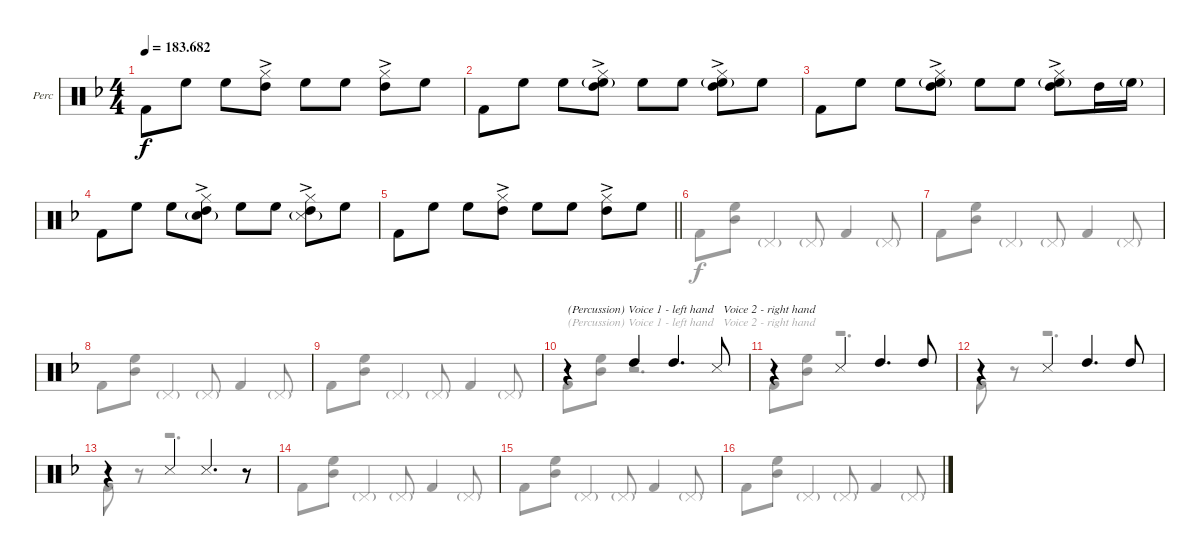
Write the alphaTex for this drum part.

\defaultSystemsLayout 4
\bracketExtendMode groupsimilarinstruments
\firstSystemTrackNameOrientation horizontal
\otherSystemsTrackNameOrientation horizontal
\track ("Body Percussion" "Perc") {instrument percussion}
\staff {score}
\articulation defaults
\voice
\ts (4 4)
\tempo
183.682
\accidentals auto
\clef neutral
\ottava regular
\simile none
\ks dminor "Kick (hit) 2"{acc forcenatural}.8{dy f beam Down} "High Floor Tom (hit)"{acc forcenatural}.8{beam Down} "High Floor Tom (hit)"{acc forcenatural}.8{beam Down}
("Hi-Hat (closed)"{acc forcenatural} "High Tom (hit)"{ac acc forcenatural}).8{beam Down} "High Floor Tom (hit)"{acc forcenatural}.8{beam Down} "High Floor Tom (hit)"{acc forcenatural}.8{beam Down} ("Hi-Hat (closed)"{acc forcenatural} "High Tom (hit)"{ac acc forcenatural}).8{beam Down} "High Floor Tom (hit)"{acc forcenatural}.8{beam Down} |
"Kick (hit) 2"{acc forcenatural}.8{beam Down} "High Floor Tom (hit)"{acc forcenatural}.8{beam Down} "High Floor Tom (hit)"{acc forcenatural}.8{beam Down} ("Hi-Hat (closed)"{acc forcenatural} "High Tom (hit)"{ac acc forcenatural} "High Floor Tom (hit)"{g acc forcenatural}).8{beam Down} "High Floor Tom (hit)"{acc forcenatural}.8{beam Down} "High Floor Tom (hit)"{acc forcenatural}.8{beam Down} ("Hi-Hat (closed)"{acc forcenatural} "High Tom (hit)"{ac acc forcenatural} "High Floor Tom (hit)"{g acc forcenatural}).8{beam Down} "High Floor Tom (hit)"{acc forcenatural}.8{beam Down} |
"Kick (hit) 2"{acc forcenatural}.8{beam Down} "High Floor Tom (hit)"{acc forcenatural}.8{beam Down} "High Floor Tom (hit)"{acc forcenatural}.8{beam Down} ("Hi-Hat (closed)"{acc forcenatural} "High Tom (hit)"{ac acc forcenatural} "High Floor Tom (hit)"{g acc forcenatural}).8{beam Down} "High Floor Tom (hit)"{acc forcenatural}.8{beam Down} "High Floor Tom (hit)"{acc forcenatural}.8{beam Down} ("Hi-Hat (closed)"{acc forcenatural} "High Tom (hit)"{ac acc forcenatural} "High Floor Tom (hit)"{g acc forcenatural}).8{beam Down} "High Tom (hit)"{acc forcenatural}.16{beam Down} "High Floor Tom (hit)"{g acc forcenatural}.16{beam Down} |
"Kick (hit) 2"{acc forcenatural}.8{beam Down} "High Floor Tom (hit)"{acc forcenatural}.8{beam Down} "High Floor Tom (hit)"{acc forcenatural}.8{beam Down} ("Hi-Hat (closed)"{acc forcenatural} "High Tom (hit)"{ac acc forcenatural} "Snare (hit) 2"{g acc forcenatural}).8{beam Down} "High Floor Tom (hit)"{acc forcenatural}.8{beam Down} "High Floor Tom (hit)"{acc forcenatural}.8{beam Down} ("Hi-Hat (closed)"{acc forcenatural} "High Tom (hit)"{ac acc forcenatural} "Snare (side stick) 3"{g acc forcenatural}).8{beam Down} "High Floor Tom (hit)"{acc forcenatural}.8{beam Down} |
\barLineRight lightlight "Kick (hit) 2"{acc forcenatural}.8{beam Down} "High Floor Tom (hit)"{acc forcenatural}.8{beam Down} "High Floor Tom (hit)"{acc forcenatural}.8{beam Down}
("Hi-Hat (closed)"{acc forcenatural} "High Tom (hit)"{ac acc forcenatural}).8{beam Down} "High Floor Tom (hit)"{acc forcenatural}.8{beam Down} "High Floor Tom (hit)"{acc forcenatural}.8{beam Down} ("Hi-Hat (closed)"{acc forcenatural} "High Tom (hit)"{ac acc forcenatural}).8{beam Down} "High Floor Tom (hit)"{acc forcenatural}.8{beam Down} |
|
|
|
|
r.4{txt "(Percussion) Voice 1 - left hand   Voice 2 - right hand" beam Up} "High Tom (hit)"{acc forcenatural}.4{beam Up} "High Tom (hit)"{acc forcenatural}.4{d beam Up} "Snare (side stick) 3"{acc forcenatural}.8{beam Up} |
r.4{beam Up} "Snare (side stick) 3"{acc forcenatural}.4{beam Up} "High Tom (hit)"{acc forcenatural}.4{d beam Up} "High Tom (hit)"{acc forcenatural}.8{beam Up} |
r.4{beam Up} "Snare (side stick) 3"{acc forcenatural}.4{beam Up} "High Tom (hit)"{acc forcenatural}.4{d beam Up} "High Tom (hit)"{acc forcenatural}.8{beam Up} |
r.4{beam Up} "Snare (side stick) 3"{acc forcenatural}.4{beam Up} "Snare (side stick) 3"{acc forcenatural}.4{d beam Up} r.8{beam Up} |
|
|
\voice
\clef neutral
\ottava regular
\simile none
\ks dminor
|
|
|
|
\barLineRight lightlight
|
"Kick (hit) 2"{acc forcenatural}.8{beam Down} ("High Floor Tom (hit)"{acc forcenatural} "Mid Tom (hit)"{acc forcenatural}).8{beam Down} "Pedal Hi-Hat (hit)"{g acc forcenatural}.4{beam Up} "Pedal Hi-Hat (hit)"{g acc forcenatural}.8{beam Up} "Kick (hit) 2"{acc forcenatural}.4{beam Up} "Pedal Hi-Hat (hit)"{g acc forcenatural}.8{beam Up} |
"Kick (hit) 2"{acc forcenatural}.8{beam Down} ("High Floor Tom (hit)"{acc forcenatural} "Mid Tom (hit)"{acc forcenatural}).8{beam Down} "Pedal Hi-Hat (hit)"{g acc forcenatural}.4{beam Up} "Pedal Hi-Hat (hit)"{g acc forcenatural}.8{beam Up} "Kick (hit) 2"{acc forcenatural}.4{beam Up} "Pedal Hi-Hat (hit)"{g acc forcenatural}.8{beam Up} |
"Kick (hit) 2"{acc forcenatural}.8{beam Down} ("High Floor Tom (hit)"{acc forcenatural} "Mid Tom (hit)"{acc forcenatural}).8{beam Down} "Pedal Hi-Hat (hit)"{g acc forcenatural}.4{beam Up} "Pedal Hi-Hat (hit)"{g acc forcenatural}.8{beam Up} "Kick (hit) 2"{acc forcenatural}.4{beam Up} "Pedal Hi-Hat (hit)"{g acc forcenatural}.8{beam Up} |
"Kick (hit) 2"{acc forcenatural}.8{beam Down} ("High Floor Tom (hit)"{acc forcenatural} "Mid Tom (hit)"{acc forcenatural}).8{beam Down} "Pedal Hi-Hat (hit)"{g acc forcenatural}.4{beam Up} "Pedal Hi-Hat (hit)"{g acc forcenatural}.8{beam Up} "Kick (hit) 2"{acc forcenatural}.4{beam Up} "Pedal Hi-Hat (hit)"{g acc forcenatural}.8{beam Up} |
"Kick (hit) 2"{acc forcenatural}.8{txt "(Percussion) Voice 1 - left hand   Voice 2 - right hand" beam Down} ("High Floor Tom (hit)"{acc forcenatural} "Mid Tom (hit)"{acc forcenatural}).8{beam Down} r.2{d beam Down} |
"Kick (hit) 2"{acc forcenatural}.8{beam Down} ("High Floor Tom (hit)"{acc forcenatural} "Mid Tom (hit)"{acc forcenatural}).8{beam Down} r.2{d beam Down} |
"Kick (hit) 2"{acc forcenatural}.8{beam Down} r.8{beam Down} r.2{d beam Down} |
"Kick (hit) 2"{acc forcenatural}.8{beam Down} r.8{beam Down} r.2{d beam Down} |
"Kick (hit) 2"{acc forcenatural}.8{beam Down} ("High Floor Tom (hit)"{acc forcenatural} "Mid Tom (hit)"{acc forcenatural}).8{beam Down} "Pedal Hi-Hat (hit)"{g acc forcenatural}.4{beam Up} "Pedal Hi-Hat (hit)"{g acc forcenatural}.8{beam Up} "Kick (hit) 2"{acc forcenatural}.4{beam Up} "Pedal Hi-Hat (hit)"{g acc forcenatural}.8{beam Up} |
"Kick (hit) 2"{acc forcenatural}.8{beam Down} ("High Floor Tom (hit)"{acc forcenatural} "Mid Tom (hit)"{acc forcenatural}).8{beam Down} "Pedal Hi-Hat (hit)"{g acc forcenatural}.4{beam Up} "Pedal Hi-Hat (hit)"{g acc forcenatural}.8{beam Up} "Kick (hit) 2"{acc forcenatural}.4{beam Up} "Pedal Hi-Hat (hit)"{g acc forcenatural}.8{beam Up} |
"Kick (hit) 2"{acc forcenatural}.8{beam Down} ("High Floor Tom (hit)"{acc forcenatural} "Mid Tom (hit)"{acc forcenatural}).8{beam Down} "Pedal Hi-Hat (hit)"{g acc forcenatural}.4{beam Up} "Pedal Hi-Hat (hit)"{g acc forcenatural}.8{beam Up} "Kick (hit) 2"{acc forcenatural}.4{beam Up} "Pedal Hi-Hat (hit)"{g acc forcenatural}.8{beam Up}
